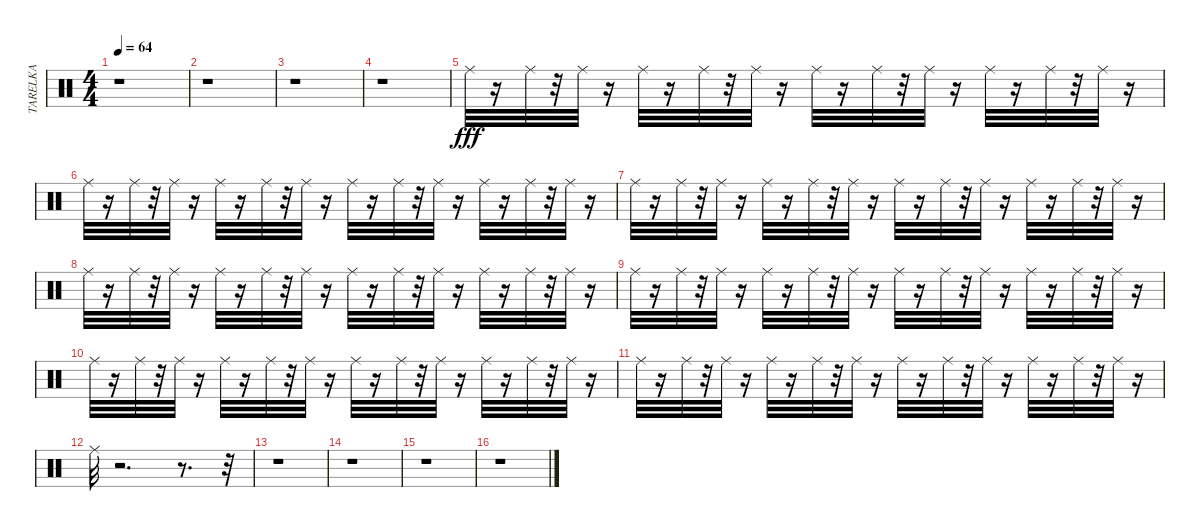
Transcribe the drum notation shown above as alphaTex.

\track ("TARELKA" "TARELKA") {instrument percussion}
\staff {score}
\articulation defaults
\ts (4 4)
\tempo 64
\clef neutral
\ks c
r.1{dy fff} |
r.1 |
r.1 |
r.1 |
"Ride (middle)".32 r.16 "Ride (middle)".32 r.32 "Ride (middle)".32 r.16 "Ride (middle)".32 r.16 "Ride (middle)".32 r.32 "Ride (middle)".32 r.16 "Ride (middle)".32 r.16 "Ride (middle)".32 r.32 "Ride (middle)".32 r.16 "Ride (middle)".32 r.16 "Ride (middle)".32 r.32 "Ride (middle)".32 r.16 |
"Ride (middle)".32 r.16 "Ride (middle)".32 r.32 "Ride (middle)".32 r.16 "Ride (middle)".32 r.16 "Ride (middle)".32 r.32 "Ride (middle)".32 r.16 "Ride (middle)".32 r.16 "Ride (middle)".32 r.32 "Ride (middle)".32 r.16 "Ride (middle)".32 r.16 "Ride (middle)".32 r.32 "Ride (middle)".32 r.16 |
"Ride (middle)".32 r.16 "Ride (middle)".32 r.32 "Ride (middle)".32 r.16 "Ride (middle)".32 r.16 "Ride (middle)".32 r.32 "Ride (middle)".32 r.16 "Ride (middle)".32 r.16 "Ride (middle)".32 r.32 "Ride (middle)".32 r.16 "Ride (middle)".32 r.16 "Ride (middle)".32 r.32 "Ride (middle)".32 r.16 |
"Ride (middle)".32 r.16 "Ride (middle)".32 r.32 "Ride (middle)".32 r.16 "Ride (middle)".32 r.16 "Ride (middle)".32 r.32 "Ride (middle)".32 r.16 "Ride (middle)".32 r.16 "Ride (middle)".32 r.32 "Ride (middle)".32 r.16 "Ride (middle)".32 r.16 "Ride (middle)".32 r.32 "Ride (middle)".32 r.16 |
"Ride (middle)".32 r.16 "Ride (middle)".32 r.32 "Ride (middle)".32 r.16 "Ride (middle)".32 r.16 "Ride (middle)".32 r.32 "Ride (middle)".32 r.16 "Ride (middle)".32 r.16 "Ride (middle)".32 r.32 "Ride (middle)".32 r.16 "Ride (middle)".32 r.16 "Ride (middle)".32 r.32 "Ride (middle)".32 r.16 |
"Ride (middle)".32 r.16 "Ride (middle)".32 r.32 "Ride (middle)".32 r.16 "Ride (middle)".32 r.16 "Ride (middle)".32 r.32 "Ride (middle)".32 r.16 "Ride (middle)".32 r.16 "Ride (middle)".32 r.32 "Ride (middle)".32 r.16 "Ride (middle)".32 r.16 "Ride (middle)".32 r.32 "Ride (middle)".32 r.16 |
"Ride (middle)".32 r.16 "Ride (middle)".32 r.32 "Ride (middle)".32 r.16 "Ride (middle)".32 r.16 "Ride (middle)".32 r.32 "Ride (middle)".32 r.16 "Ride (middle)".32 r.16 "Ride (middle)".32 r.32 "Ride (middle)".32 r.16 "Ride (middle)".32 r.16 "Ride (middle)".32 r.32 "Ride (middle)".32 r.16 |
"Ride (middle)".32 r.2{d} r.8{d} r.32 |
r.1 |
r.1 |
r.1 |
r.1
